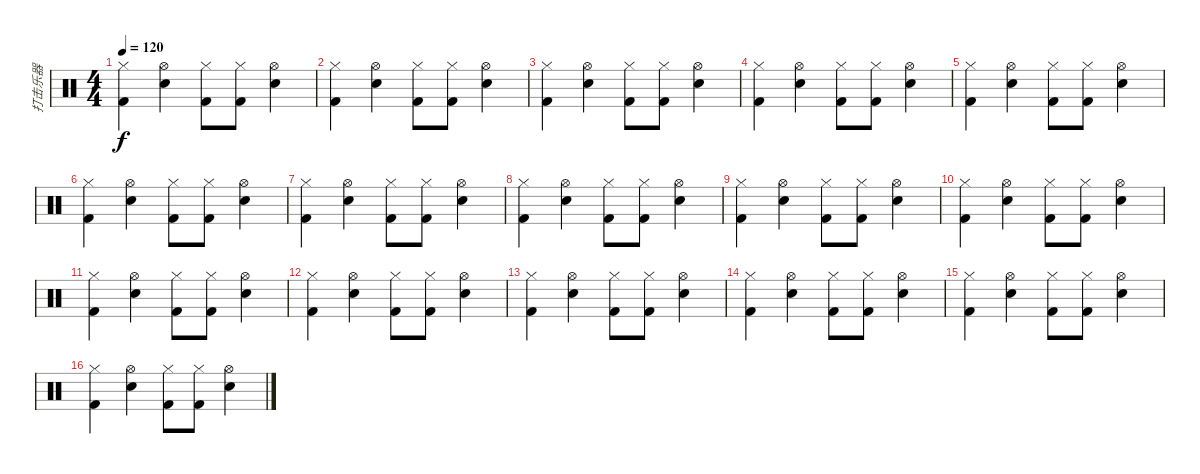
\track ("打击乐器" "打击乐器") {instrument percussion}
\staff {score}
\articulation defaults
\ts (4 4)
\tempo 120
\clef neutral
\ks c
("Hi-Hat (closed)" "Kick (hit) 2").4{dy f} ("Hi-Hat (open)" "Electric Snare (hit)").4 ("Hi-Hat (closed)" "Kick (hit) 2").8 ("Hi-Hat (closed)" "Kick (hit) 2").8 ("Hi-Hat (open)" "Electric Snare (hit)").4 |
("Hi-Hat (closed)" "Kick (hit) 2").4 ("Hi-Hat (open)" "Electric Snare (hit)").4 ("Hi-Hat (closed)" "Kick (hit) 2").8 ("Hi-Hat (closed)" "Kick (hit) 2").8 ("Hi-Hat (open)" "Electric Snare (hit)").4 |
("Hi-Hat (closed)" "Kick (hit) 2").4 ("Hi-Hat (open)" "Electric Snare (hit)").4 ("Hi-Hat (closed)" "Kick (hit) 2").8 ("Hi-Hat (closed)" "Kick (hit) 2").8 ("Hi-Hat (open)" "Electric Snare (hit)").4 |
("Hi-Hat (closed)" "Kick (hit) 2").4 ("Hi-Hat (open)" "Electric Snare (hit)").4 ("Hi-Hat (closed)" "Kick (hit) 2").8 ("Hi-Hat (closed)" "Kick (hit) 2").8 ("Hi-Hat (open)" "Electric Snare (hit)").4 |
("Hi-Hat (closed)" "Kick (hit) 2").4 ("Hi-Hat (open)" "Electric Snare (hit)").4 ("Hi-Hat (closed)" "Kick (hit) 2").8 ("Hi-Hat (closed)" "Kick (hit) 2").8 ("Hi-Hat (open)" "Electric Snare (hit)").4 |
("Hi-Hat (closed)" "Kick (hit) 2").4 ("Hi-Hat (open)" "Electric Snare (hit)").4 ("Hi-Hat (closed)" "Kick (hit) 2").8 ("Hi-Hat (closed)" "Kick (hit) 2").8 ("Hi-Hat (open)" "Electric Snare (hit)").4 |
("Hi-Hat (closed)" "Kick (hit) 2").4 ("Hi-Hat (open)" "Electric Snare (hit)").4 ("Hi-Hat (closed)" "Kick (hit) 2").8 ("Hi-Hat (closed)" "Kick (hit) 2").8 ("Hi-Hat (open)" "Electric Snare (hit)").4 |
("Hi-Hat (closed)" "Kick (hit) 2").4 ("Hi-Hat (open)" "Electric Snare (hit)").4 ("Hi-Hat (closed)" "Kick (hit) 2").8 ("Hi-Hat (closed)" "Kick (hit) 2").8 ("Hi-Hat (open)" "Electric Snare (hit)").4 |
("Hi-Hat (closed)" "Kick (hit) 2").4 ("Hi-Hat (open)" "Electric Snare (hit)").4 ("Hi-Hat (closed)" "Kick (hit) 2").8 ("Hi-Hat (closed)" "Kick (hit) 2").8 ("Hi-Hat (open)" "Electric Snare (hit)").4 |
("Hi-Hat (closed)" "Kick (hit) 2").4 ("Hi-Hat (open)" "Electric Snare (hit)").4 ("Hi-Hat (closed)" "Kick (hit) 2").8 ("Hi-Hat (closed)" "Kick (hit) 2").8 ("Hi-Hat (open)" "Electric Snare (hit)").4 |
("Hi-Hat (closed)" "Kick (hit) 2").4 ("Hi-Hat (open)" "Electric Snare (hit)").4 ("Hi-Hat (closed)" "Kick (hit) 2").8 ("Hi-Hat (closed)" "Kick (hit) 2").8 ("Hi-Hat (open)" "Electric Snare (hit)").4 |
("Hi-Hat (closed)" "Kick (hit) 2").4 ("Hi-Hat (open)" "Electric Snare (hit)").4 ("Hi-Hat (closed)" "Kick (hit) 2").8 ("Hi-Hat (closed)" "Kick (hit) 2").8 ("Hi-Hat (open)" "Electric Snare (hit)").4 |
("Hi-Hat (closed)" "Kick (hit) 2").4 ("Hi-Hat (open)" "Electric Snare (hit)").4 ("Hi-Hat (closed)" "Kick (hit) 2").8 ("Hi-Hat (closed)" "Kick (hit) 2").8 ("Hi-Hat (open)" "Electric Snare (hit)").4 |
("Hi-Hat (closed)" "Kick (hit) 2").4 ("Hi-Hat (open)" "Electric Snare (hit)").4 ("Hi-Hat (closed)" "Kick (hit) 2").8 ("Hi-Hat (closed)" "Kick (hit) 2").8 ("Hi-Hat (open)" "Electric Snare (hit)").4 |
("Hi-Hat (closed)" "Kick (hit) 2").4 ("Hi-Hat (open)" "Electric Snare (hit)").4 ("Hi-Hat (closed)" "Kick (hit) 2").8 ("Hi-Hat (closed)" "Kick (hit) 2").8 ("Hi-Hat (open)" "Electric Snare (hit)").4 |
("Hi-Hat (closed)" "Kick (hit) 2").4 ("Hi-Hat (open)" "Electric Snare (hit)").4 ("Hi-Hat (closed)" "Kick (hit) 2").8 ("Hi-Hat (closed)" "Kick (hit) 2").8 ("Hi-Hat (open)" "Electric Snare (hit)").4
